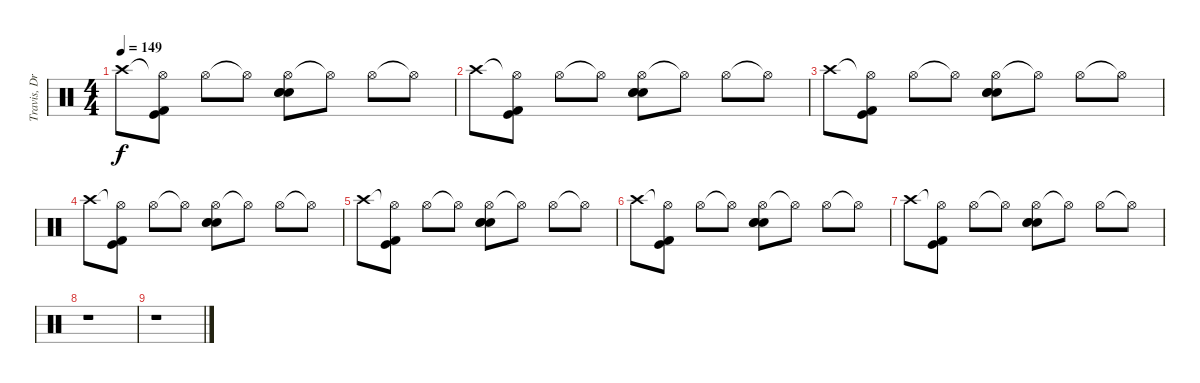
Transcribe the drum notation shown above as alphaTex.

\track ("Travis, Drums {Tabbed by Peter B.}" "Travis, Dr") {instrument percussion}
\staff {score}
\articulation defaults
\ts (4 4)
\tempo 149
\clef neutral
\ks c "Crash high (hit)".8{dy f}
("Hi-Hat (open)"{t} "Kick (hit)" "Kick (hit) 2").8 "Hi-Hat (open)".8 "Hi-Hat (open)"{t}.8 ("Hi-Hat (open)" "Electric Snare (hit)" "Electric Snare (hit)" "Snare (hit) 2").8 "Hi-Hat (open)"{t}.8 "Hi-Hat (open)".8 "Hi-Hat (open)"{t}.8 |
"Crash high (hit)".8 ("Hi-Hat (open)"{t} "Kick (hit)" "Kick (hit) 2").8 "Hi-Hat (open)".8 "Hi-Hat (open)"{t}.8 ("Hi-Hat (open)" "Electric Snare (hit)" "Electric Snare (hit)" "Snare (hit) 2").8 "Hi-Hat (open)"{t}.8 "Hi-Hat (open)".8 "Hi-Hat (open)"{t}.8 |
"Crash high (hit)".8 ("Hi-Hat (open)"{t} "Kick (hit)" "Kick (hit) 2").8 "Hi-Hat (open)".8 "Hi-Hat (open)"{t}.8 ("Hi-Hat (open)" "Electric Snare (hit)" "Electric Snare (hit)" "Snare (hit) 2").8 "Hi-Hat (open)"{t}.8 "Hi-Hat (open)".8 "Hi-Hat (open)"{t}.8 |
"Crash high (hit)".8 ("Hi-Hat (open)"{t} "Kick (hit)" "Kick (hit) 2").8 "Hi-Hat (open)".8 "Hi-Hat (open)"{t}.8 ("Hi-Hat (open)" "Electric Snare (hit)" "Electric Snare (hit)" "Snare (hit) 2").8 "Hi-Hat (open)"{t}.8 "Hi-Hat (open)".8 "Hi-Hat (open)"{t}.8 |
"Crash high (hit)".8 ("Hi-Hat (open)"{t} "Kick (hit)" "Kick (hit) 2").8 "Hi-Hat (open)".8 "Hi-Hat (open)"{t}.8 ("Hi-Hat (open)" "Electric Snare (hit)" "Electric Snare (hit)" "Snare (hit) 2").8 "Hi-Hat (open)"{t}.8 "Hi-Hat (open)".8 "Hi-Hat (open)"{t}.8 |
"Crash high (hit)".8 ("Hi-Hat (open)"{t} "Kick (hit)" "Kick (hit) 2").8 "Hi-Hat (open)".8 "Hi-Hat (open)"{t}.8 ("Hi-Hat (open)" "Electric Snare (hit)" "Electric Snare (hit)" "Snare (hit) 2").8 "Hi-Hat (open)"{t}.8 "Hi-Hat (open)".8 "Hi-Hat (open)"{t}.8 |
"Crash high (hit)".8{volume 0} ("Hi-Hat (open)"{t} "Kick (hit)" "Kick (hit) 2").8 "Hi-Hat (open)".8 "Hi-Hat (open)"{t}.8 ("Hi-Hat (open)" "Electric Snare (hit)" "Electric Snare (hit)" "Snare (hit) 2").8 "Hi-Hat (open)"{t}.8 "Hi-Hat (open)".8 "Hi-Hat (open)"{t}.8 |
r.1 |
r.1
